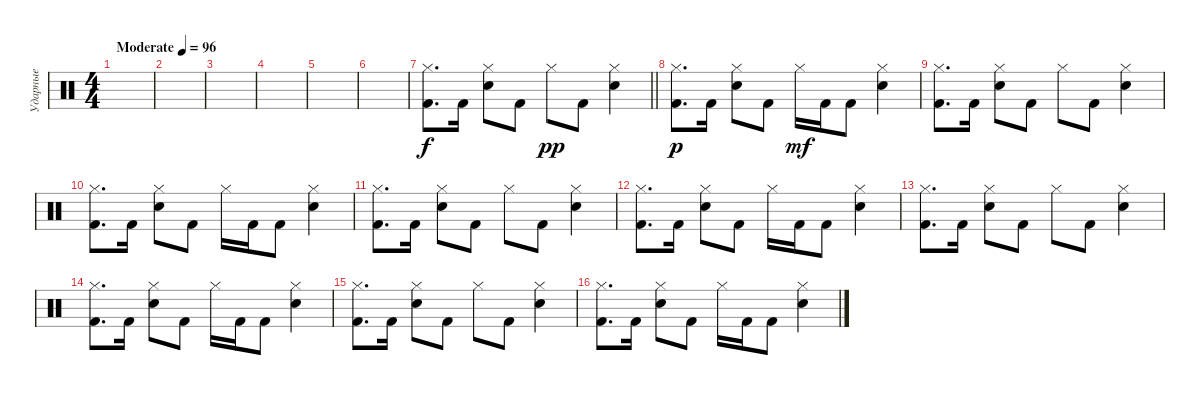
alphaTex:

\track ("Ударные" "Ударные") {instrument percussion}
\staff {score}
\articulation defaults
\ts (4 4)
\section ("" "")
\tempo (96 "Moderate")
\clef neutral
\ks aminor
|
|
|
|
|
|
\barLineRight lightlight
("Hi-Hat (closed)" "Kick (hit) 2").8{d} "Kick (hit) 2".16 ("Hi-Hat (closed)" "Snare (hit) 2").8 "Kick (hit) 2".8 "Hi-Hat (closed)".8{dy pp} "Kick (hit) 2".8 ("Hi-Hat (closed)" "Snare (hit) 2").4 |
\section ("" "")
("Hi-Hat (closed)" "Kick (hit) 2").8{d dy p} "Kick (hit) 2".16 ("Hi-Hat (closed)" "Snare (hit) 2").8 "Kick (hit) 2".8 "Hi-Hat (closed)".16{dy mf} "Kick (hit) 2".16 "Kick (hit) 2".8 ("Hi-Hat (closed)" "Snare (hit) 2").4 |
("Hi-Hat (closed)" "Kick (hit) 2").8{d} "Kick (hit) 2".16 ("Hi-Hat (closed)" "Snare (hit) 2").8 "Kick (hit) 2".8 "Hi-Hat (closed)".8 "Kick (hit) 2".8 ("Hi-Hat (closed)" "Snare (hit) 2").4 |
("Hi-Hat (closed)" "Kick (hit) 2").8{d} "Kick (hit) 2".16 ("Hi-Hat (closed)" "Snare (hit) 2").8 "Kick (hit) 2".8 "Hi-Hat (closed)".16 "Kick (hit) 2".16 "Kick (hit) 2".8 ("Hi-Hat (closed)" "Snare (hit) 2").4 |
("Hi-Hat (closed)" "Kick (hit) 2").8{d} "Kick (hit) 2".16 ("Hi-Hat (closed)" "Snare (hit) 2").8 "Kick (hit) 2".8 "Hi-Hat (closed)".8 "Kick (hit) 2".8 ("Hi-Hat (closed)" "Snare (hit) 2").4 |
("Hi-Hat (closed)" "Kick (hit) 2").8{d} "Kick (hit) 2".16 ("Hi-Hat (closed)" "Snare (hit) 2").8 "Kick (hit) 2".8 "Hi-Hat (closed)".16 "Kick (hit) 2".16 "Kick (hit) 2".8 ("Hi-Hat (closed)" "Snare (hit) 2").4 |
("Hi-Hat (closed)" "Kick (hit) 2").8{d} "Kick (hit) 2".16 ("Hi-Hat (closed)" "Snare (hit) 2").8 "Kick (hit) 2".8 "Hi-Hat (closed)".8 "Kick (hit) 2".8 ("Hi-Hat (closed)" "Snare (hit) 2").4 |
("Hi-Hat (closed)" "Kick (hit) 2").8{d} "Kick (hit) 2".16 ("Hi-Hat (closed)" "Snare (hit) 2").8 "Kick (hit) 2".8 "Hi-Hat (closed)".16 "Kick (hit) 2".16 "Kick (hit) 2".8 ("Hi-Hat (closed)" "Snare (hit) 2").4 |
("Hi-Hat (closed)" "Kick (hit) 2").8{d} "Kick (hit) 2".16 ("Hi-Hat (closed)" "Snare (hit) 2").8 "Kick (hit) 2".8 "Hi-Hat (closed)".8 "Kick (hit) 2".8 ("Hi-Hat (closed)" "Snare (hit) 2").4 |
("Hi-Hat (closed)" "Kick (hit) 2").8{d} "Kick (hit) 2".16 ("Hi-Hat (closed)" "Snare (hit) 2").8 "Kick (hit) 2".8 "Hi-Hat (closed)".16 "Kick (hit) 2".16 "Kick (hit) 2".8 ("Hi-Hat (closed)" "Snare (hit) 2").4
